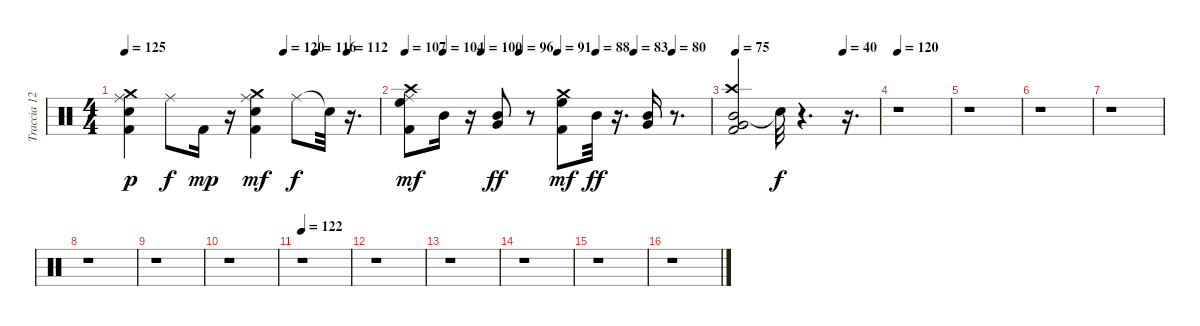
\track ("Traccia 12-13-14-15-16-17-18" "Traccia 12") {instrument percussion}
\staff {score}
\articulation defaults
\ts (4 4)
\tempo 125
\tempo (120 0.625)
\tempo (116 0.75)
\tempo (112 0.875)
\clef neutral
\ks c
("Electric Snare (hit)" "Kick (hit) 2" "Ride (middle)" "Crash medium (hit)").4{dy p} "Ride (middle)".8{dy f} "Kick (hit) 2".16{dy mp} r.16 ("Electric Snare (hit)" "Kick (hit) 2" "Ride (middle)" "Crash medium (hit)").4{dy mf} "Ride (middle)".8{dy f} "Snare (hit)"{t}.32 r.16{d} |
\tempo 107
\tempo (104 0.125)
\tempo (100 0.25)
\tempo (96 0.375)
\tempo (91 0.5)
\tempo (88 0.625)
\tempo (83 0.75)
\tempo (80 0.875)
("High Floor Tom (hit)" "Kick (hit) 2" "Ride (middle)" "Crash high (hit)").8{dy mf} "Mid Tom (hit)".16 r.16 ("Mid Tom (hit)" "Very Low Tom (hit)").8{dy ff} r.8 ("High Floor Tom (hit)" "Kick (hit) 2" "Crash medium (hit)").8{dy mf} "Mid Tom (hit)".32{dy ff} r.16{d} ("Very Low Tom (hit)" "Mid Tom (hit)").16 r.8{d} |
\tempo 75
\tempo (40 0.75)
("Mid Tom (hit)" "Very Low Tom (hit)" "Kick (hit) 2" "Crash high (hit)").2 "Snare (hit)"{t}.32{dy f} r.4{d} r.16{d} |
\tempo 120
r.1 |
r.1 |
r.1 |
r.1 |
r.1 |
r.1 |
r.1 |
\tempo 122
r.1 |
r.1 |
r.1 |
r.1 |
r.1 |
r.1
